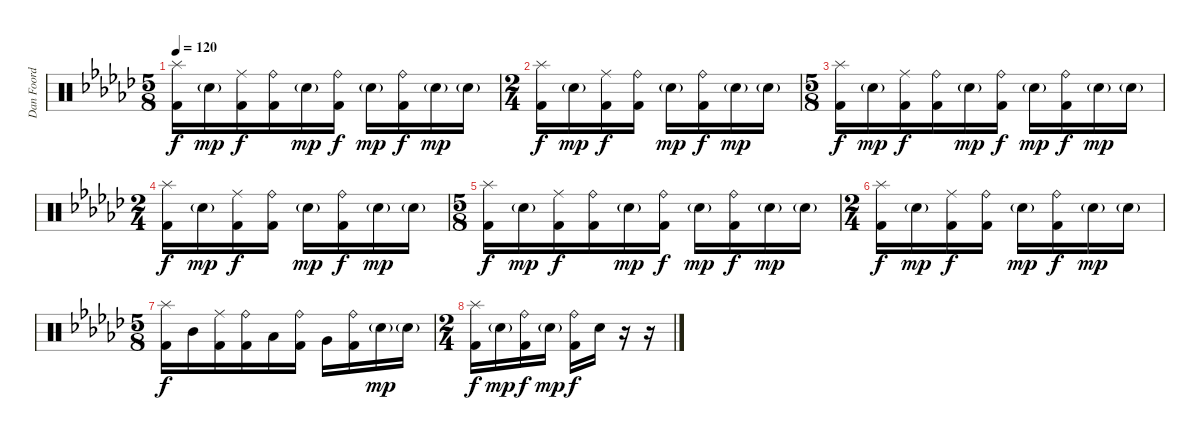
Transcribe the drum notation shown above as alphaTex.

\track ("Dan Foord 2" "Dan Foord ") {instrument percussion}
\staff {score}
\articulation defaults
\ts (5 8)
\tempo 120
\clef neutral
\ks gb
("Splash (hit)" "Kick (hit) 2").16{dy f} "Snare (hit) 2"{g}.16{dy mp} ("Ride (middle)" "Kick (hit) 2").16{dy f} ("Ride (bell)" "Kick (hit) 2").16 "Snare (hit) 2"{g}.16{dy mp} ("Ride (bell)" "Kick (hit) 2").16{dy f} "Snare (hit) 2"{g}.16{dy mp} ("Ride (bell)" "Kick (hit) 2").16{dy f} "Snare (hit) 2"{g}.16{dy mp} "Snare (hit) 2"{g}.16 |
\ts (2 4)
("Splash (hit)" "Kick (hit) 2").16{dy f} "Snare (hit) 2"{g}.16{dy mp} ("Ride (middle)" "Kick (hit) 2").16{dy f} ("Ride (bell)" "Kick (hit) 2").16 "Snare (hit) 2"{g}.16{dy mp} ("Ride (bell)" "Kick (hit) 2").16{dy f} "Snare (hit) 2"{g}.16{dy mp} "Snare (hit) 2"{g}.16 |
\ts (5 8)
("Splash (hit)" "Kick (hit) 2").16{dy f} "Snare (hit) 2"{g}.16{dy mp} ("Ride (middle)" "Kick (hit) 2").16{dy f} ("Ride (bell)" "Kick (hit) 2").16 "Snare (hit) 2"{g}.16{dy mp} ("Ride (bell)" "Kick (hit) 2").16{dy f} "Snare (hit) 2"{g}.16{dy mp} ("Ride (bell)" "Kick (hit) 2").16{dy f} "Snare (hit) 2"{g}.16{dy mp} "Snare (hit) 2"{g}.16 |
\ts (2 4)
("Splash (hit)" "Kick (hit) 2").16{dy f} "Snare (hit) 2"{g}.16{dy mp} ("Ride (middle)" "Kick (hit) 2").16{dy f} ("Ride (bell)" "Kick (hit) 2").16 "Snare (hit) 2"{g}.16{dy mp} ("Ride (bell)" "Kick (hit) 2").16{dy f} "Snare (hit) 2"{g}.16{dy mp} "Snare (hit) 2"{g}.16 |
\ts (5 8)
("Splash (hit)" "Kick (hit) 2").16{dy f} "Snare (hit) 2"{g}.16{dy mp} ("Ride (middle)" "Kick (hit) 2").16{dy f} ("Ride (bell)" "Kick (hit) 2").16 "Snare (hit) 2"{g}.16{dy mp} ("Ride (bell)" "Kick (hit) 2").16{dy f} "Snare (hit) 2"{g}.16{dy mp} ("Ride (bell)" "Kick (hit) 2").16{dy f} "Snare (hit) 2"{g}.16{dy mp} "Snare (hit) 2"{g}.16 |
\ts (2 4)
("Splash (hit)" "Kick (hit) 2").16{dy f} "Snare (hit) 2"{g}.16{dy mp} ("Ride (middle)" "Kick (hit) 2").16{dy f} ("Ride (bell)" "Kick (hit) 2").16 "Snare (hit) 2"{g}.16{dy mp} ("Ride (bell)" "Kick (hit) 2").16{dy f} "Snare (hit) 2"{g}.16{dy mp} "Snare (hit) 2"{g}.16 |
\ts (5 8)
("Splash (hit)" "Kick (hit) 2").16{dy f} "Mid Tom (hit)".16 ("Ride (middle)" "Kick (hit) 2").16 ("Ride (bell)" "Kick (hit) 2").16 "Low Tom (hit)".16 ("Ride (bell)" "Kick (hit) 2").16 "Very Low Tom (hit)".16 ("Ride (bell)" "Kick (hit) 2").16 "Snare (hit) 2"{g}.16{dy mp} "Snare (hit) 2"{g}.16 |
\ts (2 4)
("Splash (hit)" "Kick (hit) 2").16{dy f} "Snare (hit) 2"{g}.16{dy mp} ("Ride (bell)" "Kick (hit) 2").16{dy f} "Snare (hit) 2"{g}.16{dy mp} ("Ride (bell)" "Kick (hit) 2").16{dy f} "Snare (hit) 2".16 r.16 r.16
